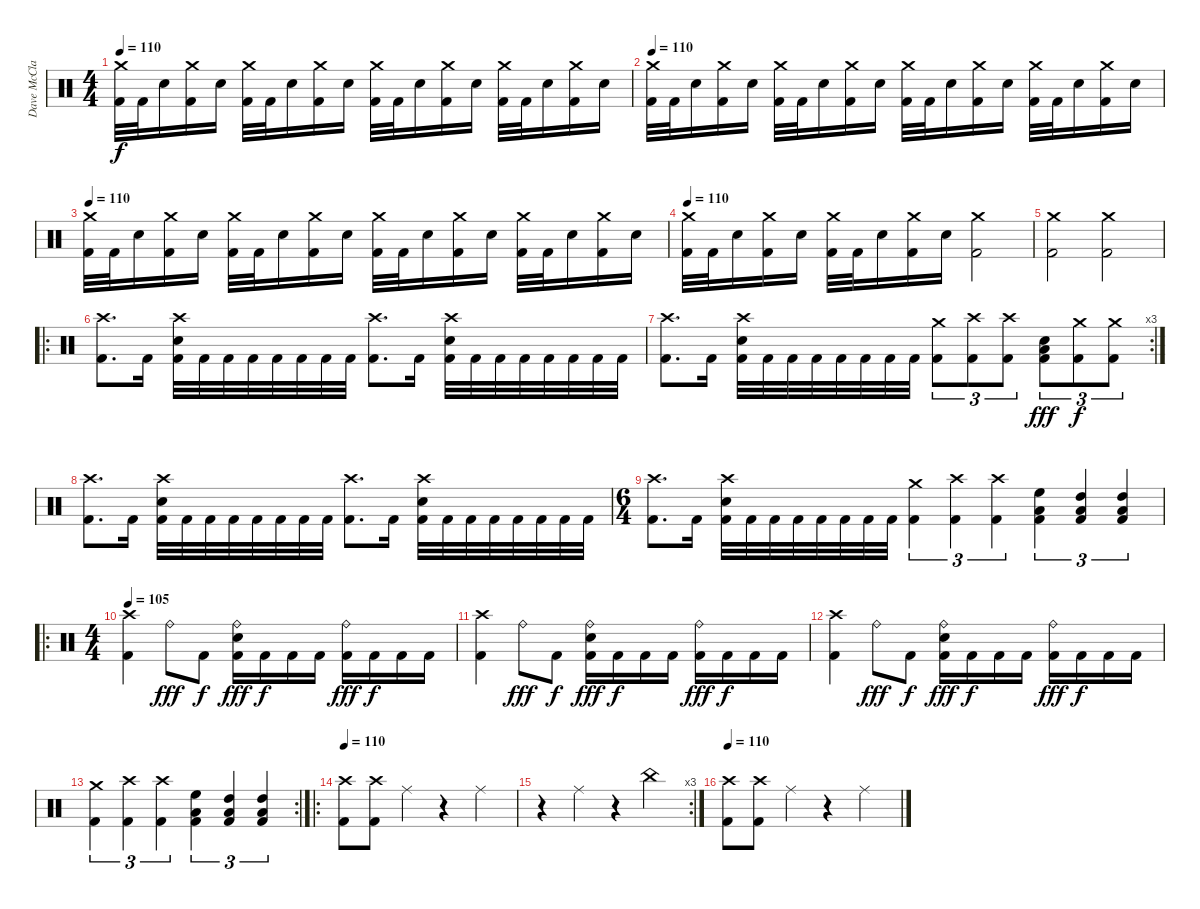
\track ("Dave McClain" "Dave McCla") {instrument percussion}
\staff {score}
\articulation defaults
\ts (4 4)
\tempo 110
\clef neutral
\ks c
("Crash medium (hit)" "Kick (hit) 2").32{dy f} "Kick (hit) 2".32 "Electric Snare (hit)".16 ("Crash medium (hit)" "Kick (hit) 2").16 "Electric Snare (hit)".16 ("Crash medium (hit)" "Kick (hit) 2").32 "Kick (hit) 2".32 "Electric Snare (hit)".16 ("Crash medium (hit)" "Kick (hit) 2").16 "Electric Snare (hit)".16 ("Crash medium (hit)" "Kick (hit) 2").32 "Kick (hit) 2".32 "Electric Snare (hit)".16 ("Crash medium (hit)" "Kick (hit) 2").16 "Electric Snare (hit)".16 ("Crash medium (hit)" "Kick (hit) 2").32 "Kick (hit) 2".32 "Electric Snare (hit)".16 ("Crash medium (hit)" "Kick (hit) 2").16 "Electric Snare (hit)".16 |
\tempo 110
("Crash medium (hit)" "Kick (hit) 2").32 "Kick (hit) 2".32 "Electric Snare (hit)".16 ("Crash medium (hit)" "Kick (hit) 2").16 "Electric Snare (hit)".16 ("Crash medium (hit)" "Kick (hit) 2").32 "Kick (hit) 2".32 "Electric Snare (hit)".16 ("Crash medium (hit)" "Kick (hit) 2").16 "Electric Snare (hit)".16 ("Crash medium (hit)" "Kick (hit) 2").32 "Kick (hit) 2".32 "Electric Snare (hit)".16 ("Crash medium (hit)" "Kick (hit) 2").16 "Electric Snare (hit)".16 ("Crash medium (hit)" "Kick (hit) 2").32 "Kick (hit) 2".32 "Electric Snare (hit)".16 ("Crash medium (hit)" "Kick (hit) 2").16 "Electric Snare (hit)".16 |
\tempo 110
("Crash medium (hit)" "Kick (hit) 2").32 "Kick (hit) 2".32 "Electric Snare (hit)".16 ("Crash medium (hit)" "Kick (hit) 2").16 "Electric Snare (hit)".16 ("Crash medium (hit)" "Kick (hit) 2").32 "Kick (hit) 2".32 "Electric Snare (hit)".16 ("Crash medium (hit)" "Kick (hit) 2").16 "Electric Snare (hit)".16 ("Crash medium (hit)" "Kick (hit) 2").32 "Kick (hit) 2".32 "Electric Snare (hit)".16 ("Crash medium (hit)" "Kick (hit) 2").16 "Electric Snare (hit)".16 ("Crash medium (hit)" "Kick (hit) 2").32 "Kick (hit) 2".32 "Electric Snare (hit)".16 ("Crash medium (hit)" "Kick (hit) 2").16 "Electric Snare (hit)".16 |
\tempo 110
("Crash medium (hit)" "Kick (hit) 2").32 "Kick (hit) 2".32 "Electric Snare (hit)".16 ("Crash medium (hit)" "Kick (hit) 2").16 "Electric Snare (hit)".16 ("Crash medium (hit)" "Kick (hit) 2").32 "Kick (hit) 2".32 "Electric Snare (hit)".16 ("Crash medium (hit)" "Kick (hit) 2").16 "Electric Snare (hit)".16 ("Crash medium (hit)" "Kick (hit) 2").2 |
("Crash medium (hit)" "Kick (hit) 2").2 ("Crash medium (hit)" "Kick (hit) 2").2 |
\ro
("Crash high (hit)" "Kick (hit) 2").8{d} "Kick (hit) 2".16 ("Crash high (hit)" "Electric Snare (hit)" "Kick (hit) 2").32 "Kick (hit) 2".32 "Kick (hit) 2".32 "Kick (hit) 2".32 "Kick (hit) 2".32 "Kick (hit) 2".32 "Kick (hit) 2".32 "Kick (hit) 2".32 ("Crash high (hit)" "Kick (hit) 2").8{d} "Kick (hit) 2".16 ("Crash high (hit)" "Electric Snare (hit)" "Kick (hit) 2").32 "Kick (hit) 2".32 "Kick (hit) 2".32 "Kick (hit) 2".32 "Kick (hit) 2".32 "Kick (hit) 2".32 "Kick (hit) 2".32 "Kick (hit) 2".32 |
\rc 3
("Crash high (hit)" "Kick (hit) 2").8{d} "Kick (hit) 2".16 ("Crash high (hit)" "Electric Snare (hit)" "Kick (hit) 2").32 "Kick (hit) 2".32 "Kick (hit) 2".32 "Kick (hit) 2".32 "Kick (hit) 2".32 "Kick (hit) 2".32 "Kick (hit) 2".32 "Kick (hit) 2".32 ("Crash medium (hit)" "Kick (hit) 2").8{tu (3 2)} ("Crash high (hit)" "Kick (hit) 2").8{tu (3 2)} ("Crash high (hit)" "Kick (hit) 2").8{tu (3 2)} ("Low Floor Tom (hit)" "Electric Snare (hit)" "Kick (hit) 2").8{tu (3 2) dy fff} ("Crash medium (hit)" "Kick (hit) 2").8{tu (3 2) dy f} ("Crash medium (hit)" "Kick (hit) 2").8{tu (3 2)} |
("Crash high (hit)" "Kick (hit) 2").8{d} "Kick (hit) 2".16 ("Crash high (hit)" "Electric Snare (hit)" "Kick (hit) 2").32 "Kick (hit) 2".32 "Kick (hit) 2".32 "Kick (hit) 2".32 "Kick (hit) 2".32 "Kick (hit) 2".32 "Kick (hit) 2".32 "Kick (hit) 2".32 ("Crash high (hit)" "Kick (hit) 2").8{d} "Kick (hit) 2".16 ("Crash high (hit)" "Electric Snare (hit)" "Kick (hit) 2").32 "Kick (hit) 2".32 "Kick (hit) 2".32 "Kick (hit) 2".32 "Kick (hit) 2".32 "Kick (hit) 2".32 "Kick (hit) 2".32 "Kick (hit) 2".32 |
\ts (6 4)
("Crash high (hit)" "Kick (hit) 2").8{d} "Kick (hit) 2".16 ("Crash high (hit)" "Electric Snare (hit)" "Kick (hit) 2").32 "Kick (hit) 2".32 "Kick (hit) 2".32 "Kick (hit) 2".32 "Kick (hit) 2".32 "Kick (hit) 2".32 "Kick (hit) 2".32 "Kick (hit) 2".32 ("Crash medium (hit)" "Kick (hit) 2").4{tu (3 2)} ("Crash high (hit)" "Kick (hit) 2").4{tu (3 2)} ("Crash high (hit)" "Kick (hit) 2").4{tu (3 2)} ("Low Floor Tom (hit)" "High Floor Tom (hit)" "Kick (hit) 2").4{tu (3 2)} ("Low Floor Tom (hit)" "High Tom (hit)" "Kick (hit) 2").4{tu (3 2)} ("Low Floor Tom (hit)" "High Tom (hit)" "Kick (hit) 2").4{tu (3 2)} |
\ro
\ts (4 4)
\tempo 105
("Crash high (hit)" "Kick (hit) 2").4 "Ride (bell)".8{dy fff} "Kick (hit) 2".8{dy f} ("Ride (bell)" "Electric Snare (hit)" "Kick (hit) 2").16{dy fff} "Kick (hit) 2".16{dy f} "Kick (hit) 2".16 "Kick (hit) 2".16 ("Ride (bell)" "Kick (hit) 2").16{dy fff} "Kick (hit) 2".16{dy f} "Kick (hit) 2".16 "Kick (hit) 2".16 |
("Crash high (hit)" "Kick (hit) 2").4 "Ride (bell)".8{dy fff} "Kick (hit) 2".8{dy f} ("Ride (bell)" "Electric Snare (hit)" "Kick (hit) 2").16{dy fff} "Kick (hit) 2".16{dy f} "Kick (hit) 2".16 "Kick (hit) 2".16 ("Ride (bell)" "Kick (hit) 2").16{dy fff} "Kick (hit) 2".16{dy f} "Kick (hit) 2".16 "Kick (hit) 2".16 |
("Crash high (hit)" "Kick (hit) 2").4 "Ride (bell)".8{dy fff} "Kick (hit) 2".8{dy f} ("Ride (bell)" "Electric Snare (hit)" "Kick (hit) 2").16{dy fff} "Kick (hit) 2".16{dy f} "Kick (hit) 2".16 "Kick (hit) 2".16 ("Ride (bell)" "Kick (hit) 2").16{dy fff} "Kick (hit) 2".16{dy f} "Kick (hit) 2".16 "Kick (hit) 2".16 |
\rc 2
("Crash medium (hit)" "Kick (hit) 2").4{tu (3 2)} ("Crash high (hit)" "Kick (hit) 2").4{tu (3 2)} ("Crash high (hit)" "Kick (hit) 2").4{tu (3 2)} ("Low Floor Tom (hit)" "High Floor Tom (hit)" "Kick (hit) 2").4{tu (3 2)} ("Low Floor Tom (hit)" "High Tom (hit)" "Kick (hit) 2").4{tu (3 2)} ("Low Floor Tom (hit)" "High Tom (hit)" "Kick (hit) 2").4{tu (3 2)} |
\ro
\tempo 110
("Crash high (hit)" "Kick (hit) 2").8 ("Crash high (hit)" "Kick (hit) 2").8 "Ride (middle)".4 r.4 "Ride (middle)".4 |
\rc 3
r.4 "Ride (middle)".4 r.4 "China (hit)".4 |
\tempo 110
("Crash high (hit)" "Kick (hit) 2").8 ("Crash high (hit)" "Kick (hit) 2").8 "Ride (middle)".4 r.4 "Ride (middle)".4
